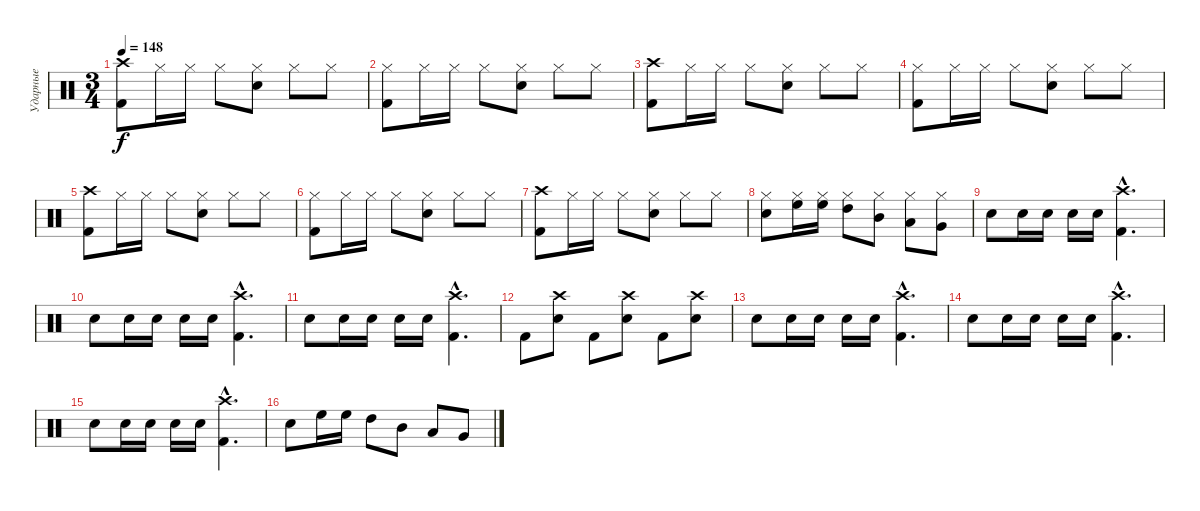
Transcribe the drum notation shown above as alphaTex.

\track ("Ударные" "Ударные") {instrument percussion}
\staff {score}
\articulation defaults
\ts (3 4)
\tempo 148
\clef neutral
\ks c
("Crash high (hit)" "Kick (hit) 2").8{dy f} "Hi-Hat (closed)".16 "Hi-Hat (closed)".16 "Hi-Hat (closed)".8 ("Hi-Hat (closed)" "Electric Snare (hit)").8 "Hi-Hat (closed)".8 "Hi-Hat (closed)".8 |
("Hi-Hat (closed)" "Kick (hit) 2").8 "Hi-Hat (closed)".16 "Hi-Hat (closed)".16 "Hi-Hat (closed)".8 ("Hi-Hat (closed)" "Electric Snare (hit)").8 "Hi-Hat (closed)".8 "Hi-Hat (closed)".8 |
("Crash high (hit)" "Kick (hit) 2").8 "Hi-Hat (closed)".16 "Hi-Hat (closed)".16 "Hi-Hat (closed)".8 ("Hi-Hat (closed)" "Electric Snare (hit)").8 "Hi-Hat (closed)".8 "Hi-Hat (closed)".8 |
("Hi-Hat (closed)" "Kick (hit) 2").8 "Hi-Hat (closed)".16 "Hi-Hat (closed)".16 "Hi-Hat (closed)".8 ("Hi-Hat (closed)" "Electric Snare (hit)").8 "Hi-Hat (closed)".8 "Hi-Hat (closed)".8 |
("Crash high (hit)" "Kick (hit) 2").8 "Hi-Hat (closed)".16 "Hi-Hat (closed)".16 "Hi-Hat (closed)".8 ("Hi-Hat (closed)" "Electric Snare (hit)").8 "Hi-Hat (closed)".8 "Hi-Hat (closed)".8 |
("Hi-Hat (closed)" "Kick (hit) 2").8 "Hi-Hat (closed)".16 "Hi-Hat (closed)".16 "Hi-Hat (closed)".8 ("Hi-Hat (closed)" "Electric Snare (hit)").8 "Hi-Hat (closed)".8 "Hi-Hat (closed)".8 |
("Crash high (hit)" "Kick (hit) 2").8 "Hi-Hat (closed)".16 "Hi-Hat (closed)".16 "Hi-Hat (closed)".8 ("Hi-Hat (closed)" "Electric Snare (hit)").8 "Hi-Hat (closed)".8 "Hi-Hat (closed)".8 |
("Hi-Hat (closed)" "Electric Snare (hit)").8 ("Hi-Hat (closed)" "High Floor Tom (hit)").16 ("Hi-Hat (closed)" "High Floor Tom (hit)").16 ("Hi-Hat (closed)" "High Tom (hit)").8 ("Hi-Hat (closed)" "Mid Tom (hit)").8 ("Hi-Hat (closed)" "Low Tom (hit)").8 ("Hi-Hat (closed)" "Very Low Tom (hit)").8 |
"Electric Snare (hit)".8 "Electric Snare (hit)".16 "Electric Snare (hit)".16 "Electric Snare (hit)".16 "Electric Snare (hit)".16 ("Crash high (hit)"{hac} "Kick (hit) 2"{hac}).4{d} |
"Electric Snare (hit)".8 "Electric Snare (hit)".16 "Electric Snare (hit)".16 "Electric Snare (hit)".16 "Electric Snare (hit)".16 ("Crash high (hit)"{hac} "Kick (hit) 2"{hac}).4{d} |
"Electric Snare (hit)".8 "Electric Snare (hit)".16 "Electric Snare (hit)".16 "Electric Snare (hit)".16 "Electric Snare (hit)".16 ("Crash high (hit)"{hac} "Kick (hit) 2"{hac}).4{d} |
"Kick (hit) 2".8 ("Crash high (hit)" "Electric Snare (hit)").8 "Kick (hit) 2".8 ("Crash high (hit)" "Electric Snare (hit)").8 "Kick (hit) 2".8 ("Crash high (hit)" "Electric Snare (hit)").8 |
"Electric Snare (hit)".8 "Electric Snare (hit)".16 "Electric Snare (hit)".16 "Electric Snare (hit)".16 "Electric Snare (hit)".16 ("Crash high (hit)"{hac} "Kick (hit) 2"{hac}).4{d} |
"Electric Snare (hit)".8 "Electric Snare (hit)".16 "Electric Snare (hit)".16 "Electric Snare (hit)".16 "Electric Snare (hit)".16 ("Crash high (hit)"{hac} "Kick (hit) 2"{hac}).4{d} |
"Electric Snare (hit)".8 "Electric Snare (hit)".16 "Electric Snare (hit)".16 "Electric Snare (hit)".16 "Electric Snare (hit)".16 ("Crash high (hit)"{hac} "Kick (hit) 2"{hac}).4{d} |
"Electric Snare (hit)".8 "High Floor Tom (hit)".16 "High Floor Tom (hit)".16 "High Tom (hit)".8 "Mid Tom (hit)".8 "Low Tom (hit)".8 "Very Low Tom (hit)".8
